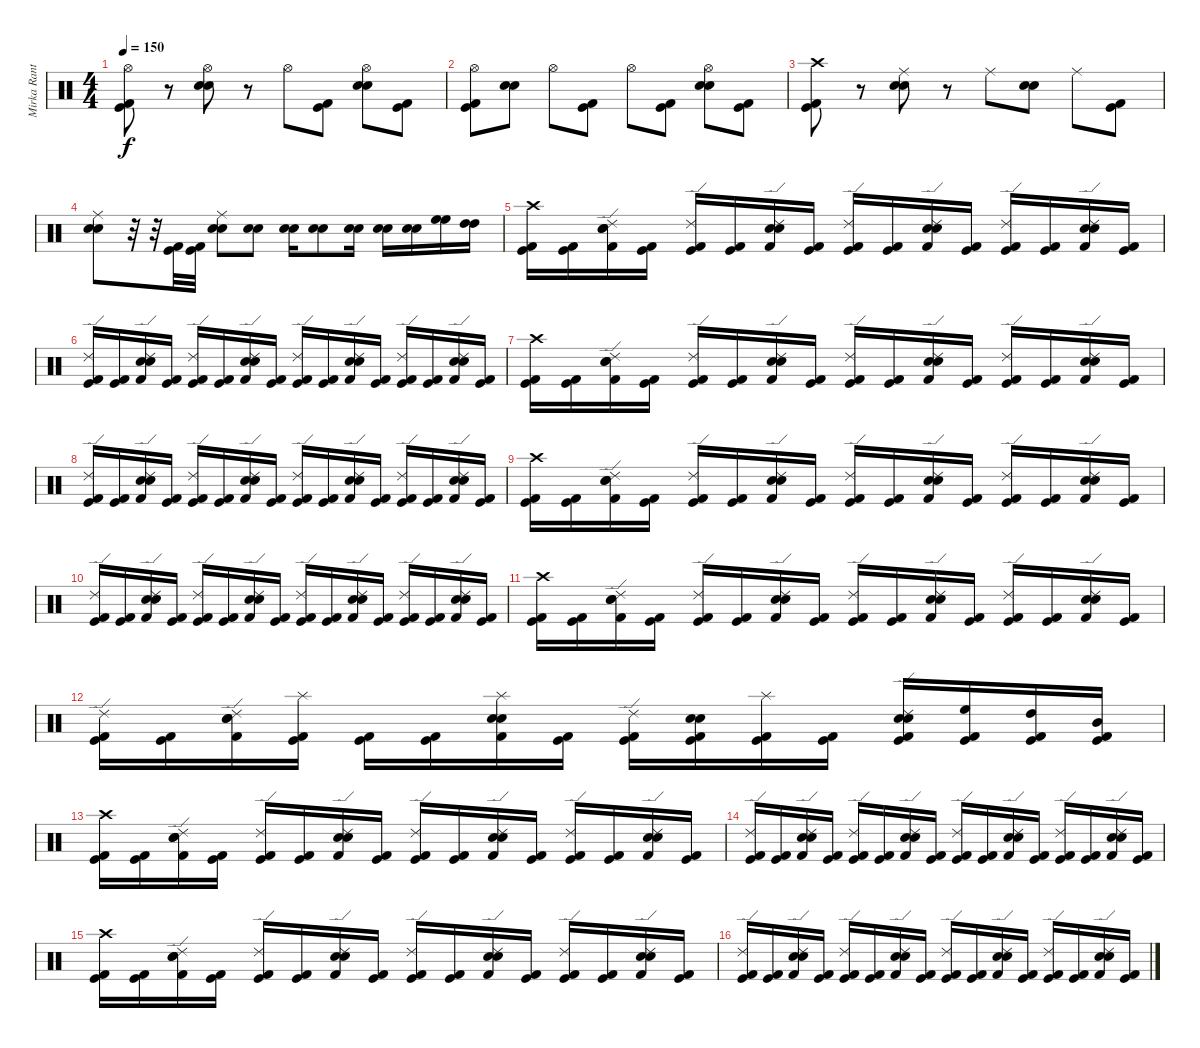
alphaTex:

\track ("Mirka Rantanen" "Mirka Rant") {instrument percussion}
\staff {score}
\articulation defaults
\ts (4 4)
\tempo 150
\clef neutral
\ks c
("Hi-Hat (open)" "Kick (hit)" "Kick (hit) 2").8{dy f} r.8 ("Hi-Hat (open)" "Electric Snare (hit)" "Snare (hit) 2").8 r.8 "Hi-Hat (open)".8 ("Kick (hit)" "Kick (hit) 2").8 ("Hi-Hat (open)" "Electric Snare (hit)" "Snare (hit) 2").8 ("Kick (hit)" "Kick (hit) 2").8 |
("Hi-Hat (open)" "Kick (hit)" "Kick (hit) 2").8 ("Electric Snare (hit)" "Snare (hit) 2").8 "Hi-Hat (open)".8 ("Kick (hit)" "Kick (hit) 2").8 "Hi-Hat (open)".8 ("Kick (hit)" "Kick (hit) 2").8 ("Hi-Hat (open)" "Electric Snare (hit)" "Snare (hit) 2").8 ("Kick (hit)" "Kick (hit) 2").8 |
("Crash high (hit)" "Kick (hit)" "Kick (hit) 2").8 r.8 ("Ride (middle)" "Electric Snare (hit)" "Snare (hit) 2").8 r.8 "Ride (middle)".8 ("Electric Snare (hit)" "Snare (hit) 2").8 "Ride (middle)".8 ("Kick (hit)" "Kick (hit) 2").8 |
("Ride (middle)" "Electric Snare (hit)" "Snare (hit) 2").8 r.32 r.32 ("Kick (hit)" "Kick (hit) 2").32 ("Kick (hit)" "Kick (hit) 2").32 ("Ride (middle)" "Electric Snare (hit)" "Snare (hit) 2").8 ("Electric Snare (hit)" "Snare (hit) 2").8 ("Electric Snare (hit)" "Snare (hit) 2").16 ("Electric Snare (hit)" "Snare (hit) 2").8 ("Electric Snare (hit)" "Snare (hit) 2").16 ("Electric Snare (hit)" "Snare (hit) 2").16 ("Electric Snare (hit)" "Snare (hit) 2").16 ("High Floor Tom (hit)" "High Floor Tom (hit)").16 ("High Tom (hit)" "High Tom (hit)").16 |
("Crash high (hit)" "Kick (hit)" "Kick (hit) 2").16 ("Kick (hit)" "Kick (hit) 2").16 ("Ride (edge) 2" "Kick (hit) 2" "Electric Snare (hit)" "Snare (hit) 2").16 ("Kick (hit)" "Kick (hit) 2").16 ("Ride (edge) 2" "Kick (hit)" "Kick (hit) 2").16 ("Kick (hit)" "Kick (hit) 2").16 ("Ride (edge) 2" "Kick (hit) 2" "Electric Snare (hit)" "Snare (hit) 2").16 ("Kick (hit)" "Kick (hit) 2").16 ("Ride (edge) 2" "Kick (hit)" "Kick (hit) 2").16 ("Kick (hit)" "Kick (hit) 2").16 ("Ride (edge) 2" "Kick (hit) 2" "Electric Snare (hit)" "Snare (hit) 2").16 ("Kick (hit)" "Kick (hit) 2").16 ("Ride (edge) 2" "Kick (hit)" "Kick (hit) 2").16 ("Kick (hit)" "Kick (hit) 2").16 ("Ride (edge) 2" "Kick (hit) 2" "Electric Snare (hit)" "Snare (hit) 2").16 ("Kick (hit)" "Kick (hit) 2").16 |
("Ride (edge) 2" "Kick (hit)" "Kick (hit) 2").16 ("Kick (hit)" "Kick (hit) 2").16 ("Ride (edge) 2" "Kick (hit) 2" "Electric Snare (hit)" "Snare (hit) 2").16 ("Kick (hit)" "Kick (hit) 2").16 ("Ride (edge) 2" "Kick (hit)" "Kick (hit) 2").16 ("Kick (hit)" "Kick (hit) 2").16 ("Ride (edge) 2" "Kick (hit) 2" "Electric Snare (hit)" "Snare (hit) 2").16 ("Kick (hit)" "Kick (hit) 2").16 ("Ride (edge) 2" "Kick (hit)" "Kick (hit) 2").16 ("Kick (hit)" "Kick (hit) 2").16 ("Ride (edge) 2" "Kick (hit) 2" "Electric Snare (hit)" "Snare (hit) 2").16 ("Kick (hit)" "Kick (hit) 2").16 ("Ride (edge) 2" "Kick (hit)" "Kick (hit) 2").16 ("Kick (hit)" "Kick (hit) 2").16 ("Ride (edge) 2" "Kick (hit) 2" "Electric Snare (hit)" "Snare (hit) 2").16 ("Kick (hit)" "Kick (hit) 2").16 |
("Crash high (hit)" "Kick (hit)" "Kick (hit) 2").16 ("Kick (hit)" "Kick (hit) 2").16 ("Ride (edge) 2" "Kick (hit) 2" "Electric Snare (hit)" "Snare (hit) 2").16 ("Kick (hit)" "Kick (hit) 2").16 ("Ride (edge) 2" "Kick (hit)" "Kick (hit) 2").16 ("Kick (hit)" "Kick (hit) 2").16 ("Ride (edge) 2" "Kick (hit) 2" "Electric Snare (hit)" "Snare (hit) 2").16 ("Kick (hit)" "Kick (hit) 2").16 ("Ride (edge) 2" "Kick (hit)" "Kick (hit) 2").16 ("Kick (hit)" "Kick (hit) 2").16 ("Ride (edge) 2" "Kick (hit) 2" "Electric Snare (hit)" "Snare (hit) 2").16 ("Kick (hit)" "Kick (hit) 2").16 ("Ride (edge) 2" "Kick (hit)" "Kick (hit) 2").16 ("Kick (hit)" "Kick (hit) 2").16 ("Ride (edge) 2" "Kick (hit) 2" "Electric Snare (hit)" "Snare (hit) 2").16 ("Kick (hit)" "Kick (hit) 2").16 |
("Ride (edge) 2" "Kick (hit)" "Kick (hit) 2").16 ("Kick (hit)" "Kick (hit) 2").16 ("Ride (edge) 2" "Kick (hit) 2" "Electric Snare (hit)" "Snare (hit) 2").16 ("Kick (hit)" "Kick (hit) 2").16 ("Ride (edge) 2" "Kick (hit)" "Kick (hit) 2").16 ("Kick (hit)" "Kick (hit) 2").16 ("Ride (edge) 2" "Kick (hit) 2" "Electric Snare (hit)" "Snare (hit) 2").16 ("Kick (hit)" "Kick (hit) 2").16 ("Ride (edge) 2" "Kick (hit)" "Kick (hit) 2").16 ("Kick (hit)" "Kick (hit) 2").16 ("Ride (edge) 2" "Kick (hit) 2" "Electric Snare (hit)" "Snare (hit) 2").16 ("Kick (hit)" "Kick (hit) 2").16 ("Ride (edge) 2" "Kick (hit)" "Kick (hit) 2").16 ("Kick (hit)" "Kick (hit) 2").16 ("Ride (edge) 2" "Kick (hit) 2" "Electric Snare (hit)" "Snare (hit) 2").16 ("Kick (hit)" "Kick (hit) 2").16 |
("Crash high (hit)" "Kick (hit)" "Kick (hit) 2").16 ("Kick (hit)" "Kick (hit) 2").16 ("Ride (edge) 2" "Kick (hit) 2" "Electric Snare (hit)" "Snare (hit) 2").16 ("Kick (hit)" "Kick (hit) 2").16 ("Ride (edge) 2" "Kick (hit)" "Kick (hit) 2").16 ("Kick (hit)" "Kick (hit) 2").16 ("Ride (edge) 2" "Kick (hit) 2" "Electric Snare (hit)" "Snare (hit) 2").16 ("Kick (hit)" "Kick (hit) 2").16 ("Ride (edge) 2" "Kick (hit)" "Kick (hit) 2").16 ("Kick (hit)" "Kick (hit) 2").16 ("Ride (edge) 2" "Kick (hit) 2" "Electric Snare (hit)" "Snare (hit) 2").16 ("Kick (hit)" "Kick (hit) 2").16 ("Ride (edge) 2" "Kick (hit)" "Kick (hit) 2").16 ("Kick (hit)" "Kick (hit) 2").16 ("Ride (edge) 2" "Kick (hit) 2" "Electric Snare (hit)" "Snare (hit) 2").16 ("Kick (hit)" "Kick (hit) 2").16 |
("Ride (edge) 2" "Kick (hit)" "Kick (hit) 2").16 ("Kick (hit)" "Kick (hit) 2").16 ("Ride (edge) 2" "Kick (hit) 2" "Electric Snare (hit)" "Snare (hit) 2").16 ("Kick (hit)" "Kick (hit) 2").16 ("Ride (edge) 2" "Kick (hit)" "Kick (hit) 2").16 ("Kick (hit)" "Kick (hit) 2").16 ("Ride (edge) 2" "Kick (hit) 2" "Electric Snare (hit)" "Snare (hit) 2").16 ("Kick (hit)" "Kick (hit) 2").16 ("Ride (edge) 2" "Kick (hit)" "Kick (hit) 2").16 ("Kick (hit)" "Kick (hit) 2").16 ("Ride (edge) 2" "Kick (hit) 2" "Electric Snare (hit)" "Snare (hit) 2").16 ("Kick (hit)" "Kick (hit) 2").16 ("Ride (edge) 2" "Kick (hit)" "Kick (hit) 2").16 ("Kick (hit)" "Kick (hit) 2").16 ("Ride (edge) 2" "Kick (hit) 2" "Electric Snare (hit)" "Snare (hit) 2").16 ("Kick (hit)" "Kick (hit) 2").16 |
("Crash high (hit)" "Kick (hit)" "Kick (hit) 2").16 ("Kick (hit)" "Kick (hit) 2").16 ("Ride (edge) 2" "Kick (hit) 2" "Electric Snare (hit)" "Snare (hit) 2").16 ("Kick (hit)" "Kick (hit) 2").16 ("Ride (edge) 2" "Kick (hit)" "Kick (hit) 2").16 ("Kick (hit)" "Kick (hit) 2").16 ("Ride (edge) 2" "Kick (hit) 2" "Electric Snare (hit)" "Snare (hit) 2").16 ("Kick (hit)" "Kick (hit) 2").16 ("Ride (edge) 2" "Kick (hit)" "Kick (hit) 2").16 ("Kick (hit)" "Kick (hit) 2").16 ("Ride (edge) 2" "Kick (hit) 2" "Electric Snare (hit)" "Snare (hit) 2").16 ("Kick (hit)" "Kick (hit) 2").16 ("Ride (edge) 2" "Kick (hit)" "Kick (hit) 2").16 ("Kick (hit)" "Kick (hit) 2").16 ("Ride (edge) 2" "Kick (hit) 2" "Electric Snare (hit)" "Snare (hit) 2").16 ("Kick (hit)" "Kick (hit) 2").16 |
("Ride (edge) 2" "Kick (hit)" "Kick (hit) 2").16 ("Kick (hit)" "Kick (hit) 2").16 ("Ride (edge) 2" "Kick (hit) 2" "Electric Snare (hit)" "Snare (hit) 2").16 ("Splash (hit)" "Kick (hit)" "Kick (hit) 2").16 ("Kick (hit)" "Kick (hit) 2").16 ("Kick (hit)" "Kick (hit) 2").16 ("Splash (hit)" "Kick (hit) 2" "Electric Snare (hit)" "Snare (hit) 2").16 ("Kick (hit)" "Kick (hit) 2").16 ("Ride (edge) 2" "Kick (hit)" "Kick (hit) 2").16 ("Kick (hit)" "Kick (hit) 2" "Electric Snare (hit)" "Snare (hit) 2").16 ("Splash (hit)" "Kick (hit)" "Kick (hit) 2").16 ("Kick (hit)" "Kick (hit) 2").16 ("Ride (edge) 2" "Kick (hit)" "Kick (hit) 2" "Electric Snare (hit)" "Snare (hit) 2").16 ("High Floor Tom (hit)" "Kick (hit)" "Kick (hit) 2").16 ("High Tom (hit)" "Kick (hit)" "Kick (hit) 2").16 ("Mid Tom (hit)" "Kick (hit)" "Kick (hit) 2").16 |
("Crash high (hit)" "Kick (hit)" "Kick (hit) 2").16 ("Kick (hit)" "Kick (hit) 2").16 ("Ride (edge) 2" "Kick (hit) 2" "Electric Snare (hit)" "Snare (hit) 2").16 ("Kick (hit)" "Kick (hit) 2").16 ("Ride (edge) 2" "Kick (hit)" "Kick (hit) 2").16 ("Kick (hit)" "Kick (hit) 2").16 ("Ride (edge) 2" "Kick (hit) 2" "Electric Snare (hit)" "Snare (hit) 2").16 ("Kick (hit)" "Kick (hit) 2").16 ("Ride (edge) 2" "Kick (hit)" "Kick (hit) 2").16 ("Kick (hit)" "Kick (hit) 2").16 ("Ride (edge) 2" "Kick (hit) 2" "Electric Snare (hit)" "Snare (hit) 2").16 ("Kick (hit)" "Kick (hit) 2").16 ("Ride (edge) 2" "Kick (hit)" "Kick (hit) 2").16 ("Kick (hit)" "Kick (hit) 2").16 ("Ride (edge) 2" "Kick (hit) 2" "Electric Snare (hit)" "Snare (hit) 2").16 ("Kick (hit)" "Kick (hit) 2").16 |
("Ride (edge) 2" "Kick (hit)" "Kick (hit) 2").16 ("Kick (hit)" "Kick (hit) 2").16 ("Ride (edge) 2" "Kick (hit) 2" "Electric Snare (hit)" "Snare (hit) 2").16 ("Kick (hit)" "Kick (hit) 2").16 ("Ride (edge) 2" "Kick (hit)" "Kick (hit) 2").16 ("Kick (hit)" "Kick (hit) 2").16 ("Ride (edge) 2" "Kick (hit) 2" "Electric Snare (hit)" "Snare (hit) 2").16 ("Kick (hit)" "Kick (hit) 2").16 ("Ride (edge) 2" "Kick (hit)" "Kick (hit) 2").16 ("Kick (hit)" "Kick (hit) 2").16 ("Ride (edge) 2" "Kick (hit) 2" "Electric Snare (hit)" "Snare (hit) 2").16 ("Kick (hit)" "Kick (hit) 2").16 ("Ride (edge) 2" "Kick (hit)" "Kick (hit) 2").16 ("Kick (hit)" "Kick (hit) 2").16 ("Ride (edge) 2" "Kick (hit) 2" "Electric Snare (hit)" "Snare (hit) 2").16 ("Kick (hit)" "Kick (hit) 2").16 |
("Crash high (hit)" "Kick (hit)" "Kick (hit) 2").16 ("Kick (hit)" "Kick (hit) 2").16 ("Ride (edge) 2" "Kick (hit) 2" "Electric Snare (hit)" "Snare (hit) 2").16 ("Kick (hit)" "Kick (hit) 2").16 ("Ride (edge) 2" "Kick (hit)" "Kick (hit) 2").16 ("Kick (hit)" "Kick (hit) 2").16 ("Ride (edge) 2" "Kick (hit) 2" "Electric Snare (hit)" "Snare (hit) 2").16 ("Kick (hit)" "Kick (hit) 2").16 ("Ride (edge) 2" "Kick (hit)" "Kick (hit) 2").16 ("Kick (hit)" "Kick (hit) 2").16 ("Ride (edge) 2" "Kick (hit) 2" "Electric Snare (hit)" "Snare (hit) 2").16 ("Kick (hit)" "Kick (hit) 2").16 ("Ride (edge) 2" "Kick (hit)" "Kick (hit) 2").16 ("Kick (hit)" "Kick (hit) 2").16 ("Ride (edge) 2" "Kick (hit) 2" "Electric Snare (hit)" "Snare (hit) 2").16 ("Kick (hit)" "Kick (hit) 2").16 |
("Ride (edge) 2" "Kick (hit)" "Kick (hit) 2").16 ("Kick (hit)" "Kick (hit) 2").16 ("Ride (edge) 2" "Kick (hit) 2" "Electric Snare (hit)" "Snare (hit) 2").16 ("Kick (hit)" "Kick (hit) 2").16 ("Ride (edge) 2" "Kick (hit)" "Kick (hit) 2").16 ("Kick (hit)" "Kick (hit) 2").16 ("Ride (edge) 2" "Kick (hit) 2" "Electric Snare (hit)" "Snare (hit) 2").16 ("Kick (hit)" "Kick (hit) 2").16 ("Ride (edge) 2" "Kick (hit)" "Kick (hit) 2").16 ("Kick (hit)" "Kick (hit) 2").16 ("Ride (edge) 2" "Kick (hit) 2" "Electric Snare (hit)" "Snare (hit) 2").16 ("Kick (hit)" "Kick (hit) 2").16 ("Ride (edge) 2" "Kick (hit)" "Kick (hit) 2").16 ("Kick (hit)" "Kick (hit) 2").16 ("Ride (edge) 2" "Kick (hit) 2" "Electric Snare (hit)" "Snare (hit) 2").16 ("Kick (hit)" "Kick (hit) 2").16
